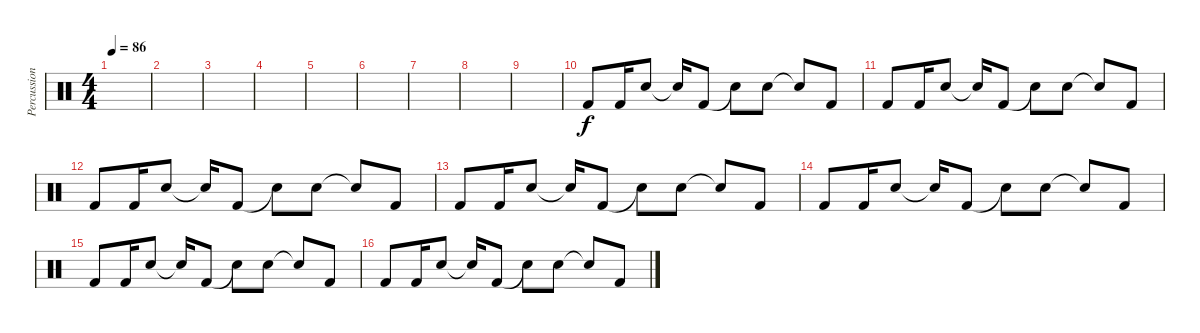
\track ("Percussion" "Percussion") {instrument percussion}
\staff {score}
\articulation defaults
\ts (4 4)
\tempo 86
\clef neutral
\ks c
|
|
|
|
|
|
|
|
|
"Kick (hit) 2".8 "Kick (hit) 2".16 "Snare (hit) 2".8 "Snare (hit)"{t}.16 "Kick (hit) 2".8 "Snare (hit)"{t}.8 "Snare (hit) 2".8 "Snare (hit)"{t}.8 "Kick (hit) 2".8 |
"Kick (hit) 2".8 "Kick (hit) 2".16 "Snare (hit) 2".8 "Snare (hit)"{t}.16 "Kick (hit) 2".8 "Snare (hit)"{t}.8 "Snare (hit) 2".8 "Snare (hit)"{t}.8 "Kick (hit) 2".8 |
"Kick (hit) 2".8 "Kick (hit) 2".16 "Snare (hit) 2".8 "Snare (hit)"{t}.16 "Kick (hit) 2".8 "Snare (hit)"{t}.8 "Snare (hit) 2".8 "Snare (hit)"{t}.8 "Kick (hit) 2".8 |
"Kick (hit) 2".8 "Kick (hit) 2".16 "Snare (hit) 2".8 "Snare (hit)"{t}.16 "Kick (hit) 2".8 "Snare (hit)"{t}.8 "Snare (hit) 2".8 "Snare (hit)"{t}.8 "Kick (hit) 2".8 |
"Kick (hit) 2".8 "Kick (hit) 2".16 "Snare (hit) 2".8 "Snare (hit)"{t}.16 "Kick (hit) 2".8 "Snare (hit)"{t}.8 "Snare (hit) 2".8 "Snare (hit)"{t}.8 "Kick (hit) 2".8 |
"Kick (hit) 2".8 "Kick (hit) 2".16 "Snare (hit) 2".8 "Snare (hit)"{t}.16 "Kick (hit) 2".8 "Snare (hit)"{t}.8 "Snare (hit) 2".8 "Snare (hit)"{t}.8 "Kick (hit) 2".8 |
"Kick (hit) 2".8 "Kick (hit) 2".16 "Snare (hit) 2".8 "Snare (hit)"{t}.16 "Kick (hit) 2".8 "Snare (hit)"{t}.8 "Snare (hit) 2".8 "Snare (hit)"{t}.8 "Kick (hit) 2".8
